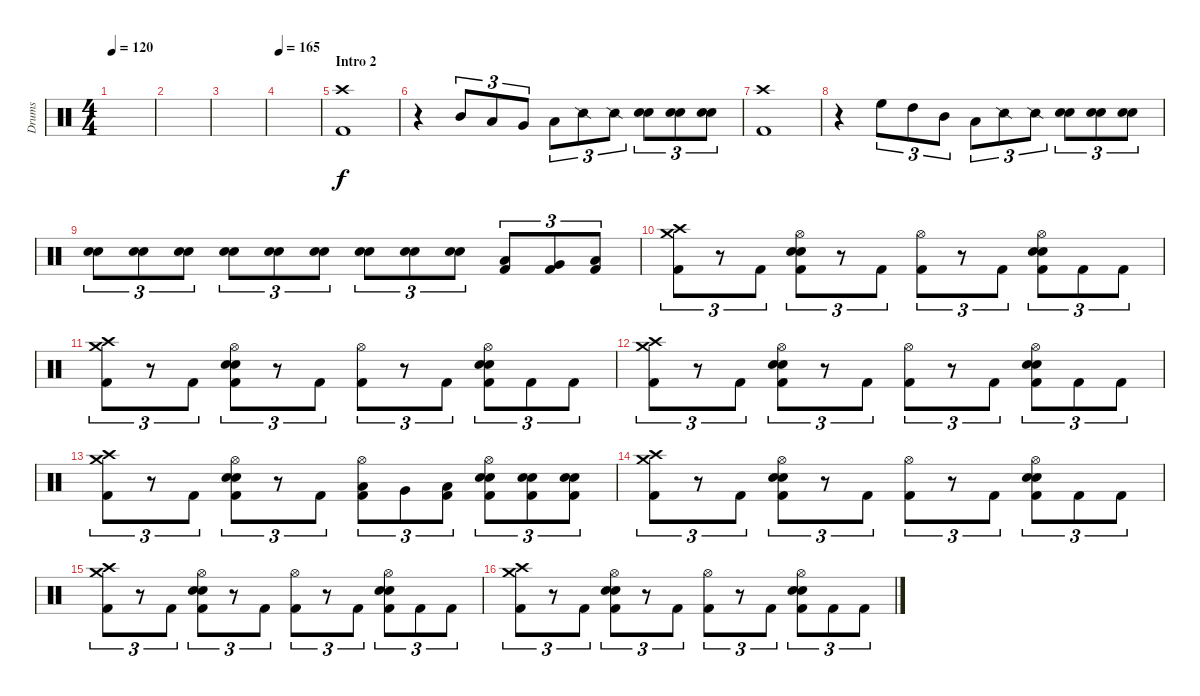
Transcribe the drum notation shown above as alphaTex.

\track ("Drums" "Drums") {instrument percussion}
\staff {score}
\articulation defaults
\ts (4 4)
\tempo 120
\clef neutral
\ks c
|
|
|
\tempo 165
|
\section ("" "Intro 2")
("Crash high (hit)" "Kick (hit) 2").1 |
r.4 "Mid Tom (hit)".8{tu (3 2)} "Low Tom (hit)".8{tu (3 2)} "Very Low Tom (hit)".8{tu (3 2)} "Low Floor Tom (hit)".8{tu (3 2)} "Snare (side stick) 2".8{tu (3 2)} "Snare (side stick) 2".8{tu (3 2)} ("Electric Snare (hit)" "Snare (hit) 2").8{tu (3 2)} ("Electric Snare (hit)" "Snare (hit) 2").8{tu (3 2)} ("Electric Snare (hit)" "Snare (hit) 2").8{tu (3 2)} |
("Crash high (hit)" "Kick (hit) 2").1 |
r.4 "High Floor Tom (hit)".8{tu (3 2)} "High Tom (hit)".8{tu (3 2)} "Mid Tom (hit)".8{tu (3 2)} "Low Tom (hit)".8{tu (3 2)} "Snare (side stick) 2".8{tu (3 2)} "Snare (side stick) 2".8{tu (3 2)} ("Electric Snare (hit)" "Snare (hit) 2").8{tu (3 2)} ("Electric Snare (hit)" "Snare (hit) 2").8{tu (3 2)} ("Electric Snare (hit)" "Snare (hit) 2").8{tu (3 2)} |
("Electric Snare (hit)" "Snare (hit) 2").8{tu (3 2)} ("Electric Snare (hit)" "Snare (hit) 2").8{tu (3 2)} ("Electric Snare (hit)" "Snare (hit) 2").8{tu (3 2)} ("Electric Snare (hit)" "Snare (hit) 2").8{tu (3 2)} ("Electric Snare (hit)" "Snare (hit) 2").8{tu (3 2)} ("Electric Snare (hit)" "Snare (hit) 2").8{tu (3 2)} ("Electric Snare (hit)" "Snare (hit) 2").8{tu (3 2)} ("Electric Snare (hit)" "Snare (hit) 2").8{tu (3 2)} ("Electric Snare (hit)" "Snare (hit) 2").8{tu (3 2)} ("Low Tom (hit)" "Kick (hit) 2").8{tu (3 2)} ("Very Low Tom (hit)" "Kick (hit) 2").8{tu (3 2)} ("Low Floor Tom (hit)" "Kick (hit) 2").8{tu (3 2)} |
("Crash high (hit)" "Crash medium (hit)" "Kick (hit) 2").8{tu (3 2)} r.8{tu (3 2)} "Kick (hit) 2".8{tu (3 2)} ("Hi-Hat (open)" "Electric Snare (hit)" "Snare (hit) 2" "Kick (hit) 2").8{tu (3 2)} r.8{tu (3 2)} "Kick (hit) 2".8{tu (3 2)} ("Hi-Hat (open)" "Kick (hit) 2").8{tu (3 2)} r.8{tu (3 2)} "Kick (hit) 2".8{tu (3 2)} ("Hi-Hat (open)" "Electric Snare (hit)" "Snare (hit) 2" "Kick (hit) 2").8{tu (3 2)} "Kick (hit) 2".8{tu (3 2)} "Kick (hit) 2".8{tu (3 2)} |
("Crash high (hit)" "Crash medium (hit)" "Kick (hit) 2").8{tu (3 2)} r.8{tu (3 2)} "Kick (hit) 2".8{tu (3 2)} ("Hi-Hat (open)" "Electric Snare (hit)" "Snare (hit) 2" "Kick (hit) 2").8{tu (3 2)} r.8{tu (3 2)} "Kick (hit) 2".8{tu (3 2)} ("Hi-Hat (open)" "Kick (hit) 2").8{tu (3 2)} r.8{tu (3 2)} "Kick (hit) 2".8{tu (3 2)} ("Hi-Hat (open)" "Electric Snare (hit)" "Snare (hit) 2" "Kick (hit) 2").8{tu (3 2)} "Kick (hit) 2".8{tu (3 2)} "Kick (hit) 2".8{tu (3 2)} |
("Crash high (hit)" "Crash medium (hit)" "Kick (hit) 2").8{tu (3 2)} r.8{tu (3 2)} "Kick (hit) 2".8{tu (3 2)} ("Hi-Hat (open)" "Electric Snare (hit)" "Snare (hit) 2" "Kick (hit) 2").8{tu (3 2)} r.8{tu (3 2)} "Kick (hit) 2".8{tu (3 2)} ("Hi-Hat (open)" "Kick (hit) 2").8{tu (3 2)} r.8{tu (3 2)} "Kick (hit) 2".8{tu (3 2)} ("Hi-Hat (open)" "Electric Snare (hit)" "Snare (hit) 2" "Kick (hit) 2").8{tu (3 2)} "Kick (hit) 2".8{tu (3 2)} "Kick (hit) 2".8{tu (3 2)} |
("Crash high (hit)" "Crash medium (hit)" "Kick (hit) 2").8{tu (3 2)} r.8{tu (3 2)} "Kick (hit) 2".8{tu (3 2)} ("Hi-Hat (open)" "Electric Snare (hit)" "Snare (hit) 2" "Kick (hit) 2").8{tu (3 2)} r.8{tu (3 2)} "Kick (hit) 2".8{tu (3 2)} ("Hi-Hat (open)" "Low Tom (hit)" "Kick (hit) 2").8{tu (3 2)} "Very Low Tom (hit)".8{tu (3 2)} ("Low Floor Tom (hit)" "Kick (hit) 2").8{tu (3 2)} ("Hi-Hat (open)" "Electric Snare (hit)" "Snare (hit) 2" "Kick (hit) 2").8{tu (3 2)} ("Electric Snare (hit)" "Snare (hit) 2" "Kick (hit) 2").8{tu (3 2)} ("Electric Snare (hit)" "Snare (hit) 2" "Kick (hit) 2").8{tu (3 2)} |
("Crash high (hit)" "Crash medium (hit)" "Kick (hit) 2").8{tu (3 2)} r.8{tu (3 2)} "Kick (hit) 2".8{tu (3 2)} ("Hi-Hat (open)" "Electric Snare (hit)" "Snare (hit) 2" "Kick (hit) 2").8{tu (3 2)} r.8{tu (3 2)} "Kick (hit) 2".8{tu (3 2)} ("Hi-Hat (open)" "Kick (hit) 2").8{tu (3 2)} r.8{tu (3 2)} "Kick (hit) 2".8{tu (3 2)} ("Hi-Hat (open)" "Electric Snare (hit)" "Snare (hit) 2" "Kick (hit) 2").8{tu (3 2)} "Kick (hit) 2".8{tu (3 2)} "Kick (hit) 2".8{tu (3 2)} |
("Crash high (hit)" "Crash medium (hit)" "Kick (hit) 2").8{tu (3 2)} r.8{tu (3 2)} "Kick (hit) 2".8{tu (3 2)} ("Hi-Hat (open)" "Electric Snare (hit)" "Snare (hit) 2" "Kick (hit) 2").8{tu (3 2)} r.8{tu (3 2)} "Kick (hit) 2".8{tu (3 2)} ("Hi-Hat (open)" "Kick (hit) 2").8{tu (3 2)} r.8{tu (3 2)} "Kick (hit) 2".8{tu (3 2)} ("Hi-Hat (open)" "Electric Snare (hit)" "Snare (hit) 2" "Kick (hit) 2").8{tu (3 2)} "Kick (hit) 2".8{tu (3 2)} "Kick (hit) 2".8{tu (3 2)} |
("Crash high (hit)" "Crash medium (hit)" "Kick (hit) 2").8{tu (3 2)} r.8{tu (3 2)} "Kick (hit) 2".8{tu (3 2)} ("Hi-Hat (open)" "Electric Snare (hit)" "Snare (hit) 2" "Kick (hit) 2").8{tu (3 2)} r.8{tu (3 2)} "Kick (hit) 2".8{tu (3 2)} ("Hi-Hat (open)" "Kick (hit) 2").8{tu (3 2)} r.8{tu (3 2)} "Kick (hit) 2".8{tu (3 2)} ("Hi-Hat (open)" "Electric Snare (hit)" "Snare (hit) 2" "Kick (hit) 2").8{tu (3 2)} "Kick (hit) 2".8{tu (3 2)} "Kick (hit) 2".8{tu (3 2)}
